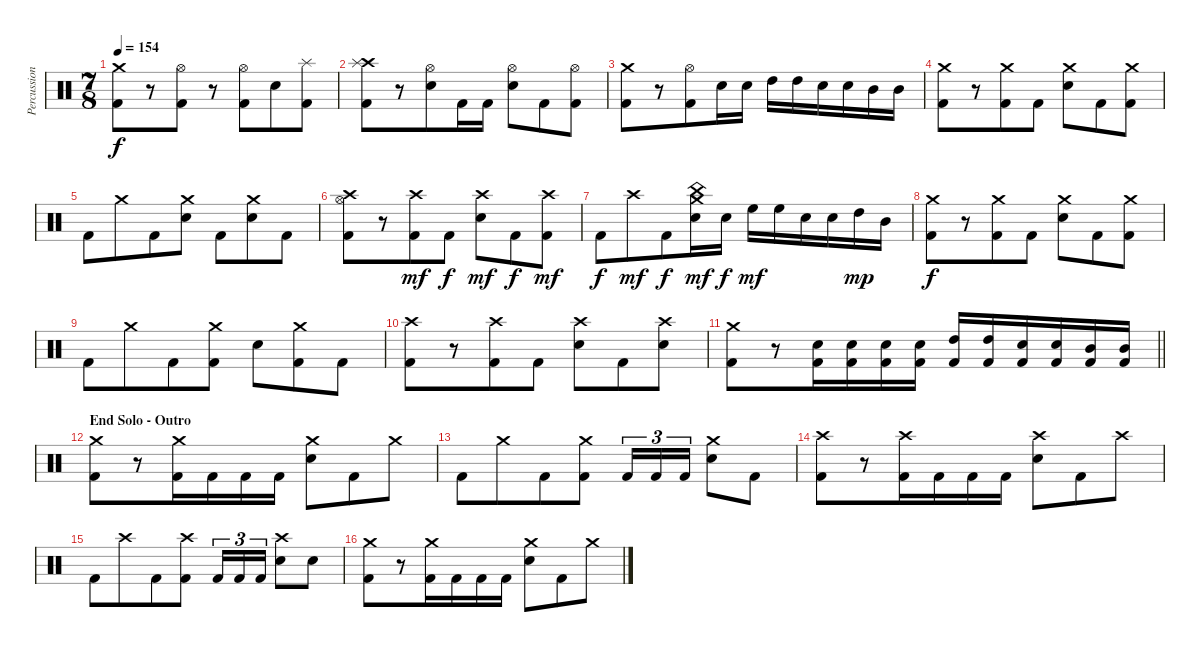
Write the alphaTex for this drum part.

\track ("Percussions" "Percussion") {instrument percussion}
\staff {score}
\articulation defaults
\ts (7 8)
\tempo 154
\clef neutral
\ks c
("Crash medium (hit)" "Kick (hit) 2").8{dy f} r.8 ("Hi-Hat (open)" "Kick (hit) 2").8 r.8 ("Hi-Hat (open)" "Kick (hit) 2").8 "Electric Snare (hit)".8 ("Splash (hit)" "Kick (hit) 2").8 |
("Crash high (hit)" "Splash (hit)" "Kick (hit) 2").8 r.8 ("Hi-Hat (open)" "Electric Snare (hit)").8 "Kick (hit) 2".16 "Kick (hit) 2".16 ("Hi-Hat (open)" "Electric Snare (hit)").8 "Kick (hit) 2".8 ("Hi-Hat (open)" "Kick (hit) 2").8 |
("Crash medium (hit)" "Kick (hit) 2").8 r.8 ("Hi-Hat (open)" "Kick (hit) 2").8 "Electric Snare (hit)".16 "Electric Snare (hit)".16 "High Tom (hit)".16 "High Tom (hit)".16 "Electric Snare (hit)".16 "Electric Snare (hit)".16 "Mid Tom (hit)".16 "Mid Tom (hit)".16 |
("Crash medium (hit)" "Kick (hit) 2").8 r.8 ("Crash medium (hit)" "Kick (hit) 2").8 "Kick (hit) 2".8 ("Crash medium (hit)" "Electric Snare (hit)").8 "Kick (hit) 2".8 ("Crash medium (hit)" "Kick (hit) 2").8 |
"Kick (hit) 2".8 "Crash medium (hit)".8 "Kick (hit) 2".8 ("Crash medium (hit)" "Electric Snare (hit)").8 "Kick (hit) 2".8 ("Crash medium (hit)" "Electric Snare (hit)").8 "Kick (hit) 2".8 |
("Crash high (hit)" "Hi-Hat (open)" "Kick (hit) 2").8 r.8 ("Crash high (hit)" "Kick (hit) 2").8{dy mf} "Kick (hit) 2".8{dy f} ("Crash high (hit)" "Electric Snare (hit)").8{dy mf} "Kick (hit) 2".8{dy f} ("Crash high (hit)" "Kick (hit) 2").8{dy mf} |
"Kick (hit) 2".8{dy f} "Crash high (hit)".8{dy mf} "Kick (hit) 2".8{dy f} ("China (hit)" "Crash medium (hit)" "Electric Snare (hit)").16{dy mf} "Electric Snare (hit)".16{dy f} "High Floor Tom (hit)".16{dy mf} "High Floor Tom (hit)".16 "Electric Snare (hit)".16 "Electric Snare (hit)".16 "High Tom (hit)".16{dy mp} "Mid Tom (hit)".16 |
("Crash medium (hit)" "Kick (hit) 2").8{dy f} r.8 ("Crash medium (hit)" "Kick (hit) 2").8 "Kick (hit) 2".8 ("Crash medium (hit)" "Electric Snare (hit)").8 "Kick (hit) 2".8 ("Crash medium (hit)" "Kick (hit) 2").8 |
"Kick (hit) 2".8 "Crash medium (hit)".8 "Kick (hit) 2".8 ("Crash medium (hit)" "Kick (hit) 2").8 "Electric Snare (hit)".8 ("Crash medium (hit)" "Kick (hit) 2").8 "Kick (hit) 2".8 |
("Crash high (hit)" "Kick (hit) 2").8 r.8 ("Crash high (hit)" "Kick (hit) 2").8 "Kick (hit) 2".8 ("Crash high (hit)" "Electric Snare (hit)").8 "Kick (hit) 2".8 ("Crash high (hit)" "Electric Snare (hit)").8 |
\barLineRight lightlight
("Crash medium (hit)" "Kick (hit) 2").8 r.8 ("Electric Snare (hit)" "Kick (hit) 2").16 ("Electric Snare (hit)" "Kick (hit) 2").16 ("Electric Snare (hit)" "Kick (hit) 2").16 ("Electric Snare (hit)" "Kick (hit) 2").16 ("High Tom (hit)" "Kick (hit) 2").16 ("High Tom (hit)" "Kick (hit) 2").16 ("Electric Snare (hit)" "Kick (hit) 2").16 ("Electric Snare (hit)" "Kick (hit) 2").16 ("Mid Tom (hit)" "Kick (hit) 2").16 ("Mid Tom (hit)" "Kick (hit) 2").16 |
\section ("" "End Solo - Outro")
("Crash medium (hit)" "Kick (hit) 2").8 r.8 ("Crash medium (hit)" "Kick (hit) 2").16 "Kick (hit) 2".16 "Kick (hit) 2".16 "Kick (hit) 2".16 ("Crash medium (hit)" "Electric Snare (hit)").8 "Kick (hit) 2".8 "Crash medium (hit)".8 |
"Kick (hit) 2".8 "Crash medium (hit)".8 "Kick (hit) 2".8 ("Crash medium (hit)" "Kick (hit) 2").8 "Kick (hit) 2".16{tu (3 2)} "Kick (hit) 2".16{tu (3 2)} "Kick (hit) 2".16{tu (3 2)} ("Crash medium (hit)" "Electric Snare (hit)").8 "Kick (hit) 2".8 |
("Crash high (hit)" "Kick (hit) 2").8 r.8 ("Crash high (hit)" "Kick (hit) 2").16 "Kick (hit) 2".16 "Kick (hit) 2".16 "Kick (hit) 2".16 ("Crash high (hit)" "Electric Snare (hit)").8 "Kick (hit) 2".8 "Crash high (hit)".8 |
"Kick (hit) 2".8 "Crash high (hit)".8 "Kick (hit) 2".8 ("Crash high (hit)" "Kick (hit) 2").8 "Kick (hit) 2".16{tu (3 2)} "Kick (hit) 2".16{tu (3 2)} "Kick (hit) 2".16{tu (3 2)} ("Crash high (hit)" "Electric Snare (hit)").8 "Electric Snare (hit)".8 |
("Crash medium (hit)" "Kick (hit) 2").8 r.8 ("Crash medium (hit)" "Kick (hit) 2").16 "Kick (hit) 2".16 "Kick (hit) 2".16 "Kick (hit) 2".16 ("Crash medium (hit)" "Electric Snare (hit)").8 "Kick (hit) 2".8 "Crash medium (hit)".8
